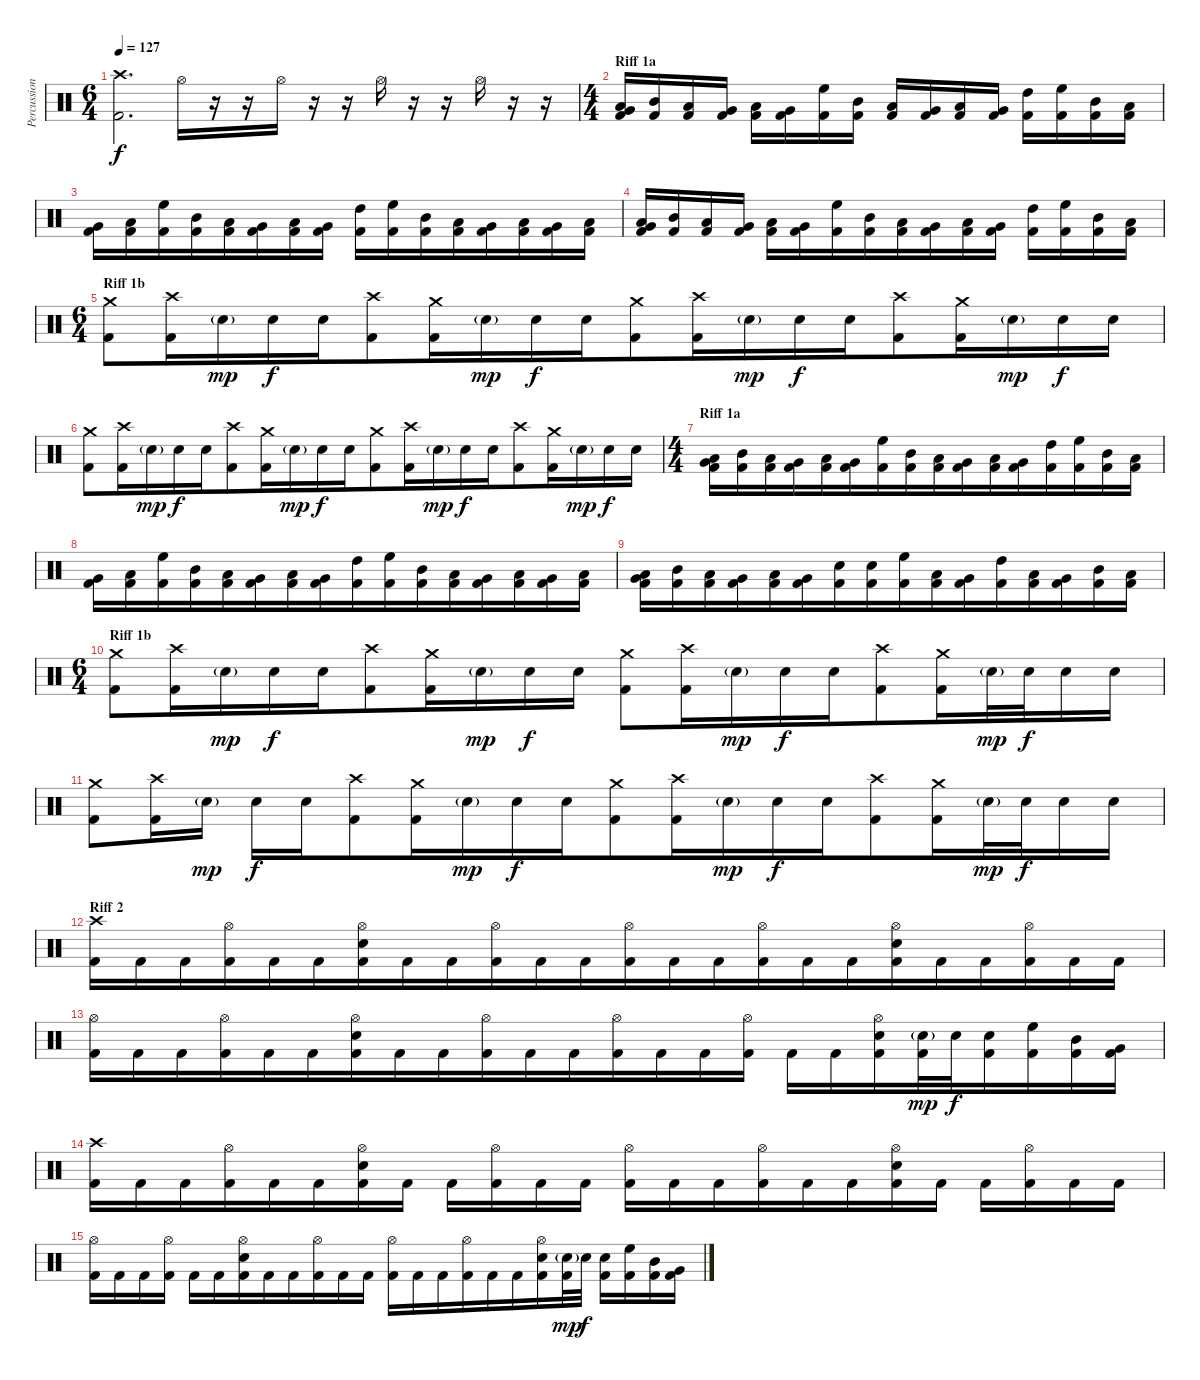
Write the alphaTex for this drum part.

\track ("Percussion" "Percussion") {instrument percussion}
\staff {score}
\articulation defaults
\ts (6 4)
\tempo 127
\clef neutral
\ks c
("Crash high (hit)" "Kick (hit) 2").2{d dy f beam merge} "Hi-Hat (open)".16 r.16 r.16{beam merge} "Hi-Hat (open)".16 r.16 r.16{beam merge} "Hi-Hat (open)".16 r.16 r.16 "Hi-Hat (open)".16 r.16{beam merge} r.16 |
\ts (4 4)
\section ("" "Riff 1a")
("Very Low Tom (hit)" "Low Floor Tom (hit)" "Kick (hit) 2").16 ("Mid Tom (hit)" "Kick (hit) 2").16{beam merge} ("Low Tom (hit)" "Kick (hit) 2").16 ("Very Low Tom (hit)" "Kick (hit) 2").16 ("Low Floor Tom (hit)" "Kick (hit) 2").16{beam merge} ("Very Low Tom (hit)" "Kick (hit) 2").16 ("High Floor Tom (hit)" "Kick (hit) 2").16 ("Mid Tom (hit)" "Kick (hit) 2").16 ("Low Tom (hit)" "Kick (hit) 2").16 ("Very Low Tom (hit)" "Kick (hit) 2").16{beam merge} ("Low Floor Tom (hit)" "Kick (hit) 2").16 ("Very Low Tom (hit)" "Kick (hit) 2").16 ("High Tom (hit)" "Kick (hit) 2").16 ("High Floor Tom (hit)" "Kick (hit) 2").16{beam merge} ("Mid Tom (hit)" "Kick (hit) 2").16 ("Low Tom (hit)" "Kick (hit) 2").16 |
("Very Low Tom (hit)" "Kick (hit) 2").16 ("Low Floor Tom (hit)" "Kick (hit) 2").16 ("High Floor Tom (hit)" "Kick (hit) 2").16{beam merge} ("Mid Tom (hit)" "Kick (hit) 2").16{beam merge} ("Low Tom (hit)" "Kick (hit) 2").16 ("Very Low Tom (hit)" "Kick (hit) 2").16{beam merge} ("Low Floor Tom (hit)" "Kick (hit) 2").16{beam merge} ("Very Low Tom (hit)" "Kick (hit) 2").16 ("High Tom (hit)" "Kick (hit) 2").16 ("High Floor Tom (hit)" "Kick (hit) 2").16{beam merge} ("Mid Tom (hit)" "Kick (hit) 2").16 ("Low Tom (hit)" "Kick (hit) 2").16{beam merge} ("Very Low Tom (hit)" "Kick (hit) 2").16 ("Low Floor Tom (hit)" "Kick (hit) 2").16{beam merge} ("Very Low Tom (hit)" "Kick (hit) 2").16 ("Low Tom (hit)" "Kick (hit) 2").16 |
("Very Low Tom (hit)" "Low Floor Tom (hit)" "Kick (hit) 2").16{beam merge} ("Mid Tom (hit)" "Kick (hit) 2").16 ("Low Tom (hit)" "Kick (hit) 2").16{beam merge} ("Very Low Tom (hit)" "Kick (hit) 2").16 ("Low Floor Tom (hit)" "Kick (hit) 2").16 ("Very Low Tom (hit)" "Kick (hit) 2").16 ("High Floor Tom (hit)" "Kick (hit) 2").16{beam merge} ("Mid Tom (hit)" "Kick (hit) 2").16{beam merge} ("Low Tom (hit)" "Kick (hit) 2").16 ("Very Low Tom (hit)" "Kick (hit) 2").16 ("Low Floor Tom (hit)" "Kick (hit) 2").16{beam merge} ("Very Low Tom (hit)" "Kick (hit) 2").16 ("High Tom (hit)" "Kick (hit) 2").16{beam merge} ("High Floor Tom (hit)" "Kick (hit) 2").16{beam merge} ("Mid Tom (hit)" "Kick (hit) 2").16 ("Low Tom (hit)" "Kick (hit) 2").16 |
\ts (6 4)
\section ("" "Riff 1b")
("Crash medium (hit)" "Kick (hit) 2").8{beam merge} ("Crash high (hit)" "Kick (hit) 2").16{beam merge} "Electric Snare (hit)"{g}.16{dy mp beam merge} "Electric Snare (hit)".16{dy f beam merge} "Electric Snare (hit)".16{beam merge} ("Crash high (hit)" "Kick (hit) 2").8{beam merge} ("Crash medium (hit)" "Kick (hit) 2").16 "Electric Snare (hit)"{g}.16{dy mp beam merge} "Electric Snare (hit)".16{dy f beam merge} "Electric Snare (hit)".16{beam merge} ("Crash medium (hit)" "Kick (hit) 2").8{beam merge} ("Crash high (hit)" "Kick (hit) 2").16{beam merge} "Electric Snare (hit)"{g}.16{dy mp beam merge} "Electric Snare (hit)".16{dy f beam merge} "Electric Snare (hit)".16 ("Crash high (hit)" "Kick (hit) 2").8{beam merge} ("Crash medium (hit)" "Kick (hit) 2").16{beam merge} "Electric Snare (hit)"{g}.16{dy mp beam merge} "Electric Snare (hit)".16{dy f beam merge} "Electric Snare (hit)".16 |
("Crash medium (hit)" "Kick (hit) 2").8{beam merge} ("Crash high (hit)" "Kick (hit) 2").16{beam merge} "Electric Snare (hit)"{g}.16{dy mp beam merge} "Electric Snare (hit)".16{dy f beam merge} "Electric Snare (hit)".16{beam merge} ("Crash high (hit)" "Kick (hit) 2").8{beam merge} ("Crash medium (hit)" "Kick (hit) 2").16{beam merge} "Electric Snare (hit)"{g}.16{dy mp beam merge} "Electric Snare (hit)".16{dy f beam merge} "Electric Snare (hit)".16{beam merge} ("Crash medium (hit)" "Kick (hit) 2").8{beam merge} ("Crash high (hit)" "Kick (hit) 2").16{beam merge} "Electric Snare (hit)"{g}.16{dy mp beam merge} "Electric Snare (hit)".16{dy f beam merge} "Electric Snare (hit)".16 ("Crash high (hit)" "Kick (hit) 2").8{beam merge} ("Crash medium (hit)" "Kick (hit) 2").16{beam merge} "Electric Snare (hit)"{g}.16{dy mp beam merge} "Electric Snare (hit)".16{dy f beam merge} "Electric Snare (hit)".16 |
\ts (4 4)
\section ("" "Riff 1a")
("Very Low Tom (hit)" "Low Floor Tom (hit)" "Kick (hit) 2").16{beam merge} ("Mid Tom (hit)" "Kick (hit) 2").16{beam merge} ("Low Tom (hit)" "Kick (hit) 2").16{beam merge} ("Very Low Tom (hit)" "Kick (hit) 2").16{beam merge} ("Low Floor Tom (hit)" "Kick (hit) 2").16{beam merge} ("Very Low Tom (hit)" "Kick (hit) 2").16{beam merge} ("High Floor Tom (hit)" "Kick (hit) 2").16{beam merge} ("Mid Tom (hit)" "Kick (hit) 2").16{beam merge} ("Low Tom (hit)" "Kick (hit) 2").16{beam merge} ("Very Low Tom (hit)" "Kick (hit) 2").16{beam merge} ("Low Floor Tom (hit)" "Kick (hit) 2").16{beam merge} ("Very Low Tom (hit)" "Kick (hit) 2").16{beam merge} ("High Tom (hit)" "Kick (hit) 2").16{beam merge} ("High Floor Tom (hit)" "Kick (hit) 2").16{beam merge} ("Mid Tom (hit)" "Kick (hit) 2").16{beam merge} ("Low Tom (hit)" "Kick (hit) 2").16 |
("Very Low Tom (hit)" "Kick (hit) 2").16{beam merge} ("Low Floor Tom (hit)" "Kick (hit) 2").16{beam merge} ("High Floor Tom (hit)" "Kick (hit) 2").16{beam merge} ("Mid Tom (hit)" "Kick (hit) 2").16{beam merge} ("Low Tom (hit)" "Kick (hit) 2").16{beam merge} ("Very Low Tom (hit)" "Kick (hit) 2").16{beam merge} ("Low Floor Tom (hit)" "Kick (hit) 2").16{beam merge} ("Very Low Tom (hit)" "Kick (hit) 2").16{beam merge} ("High Tom (hit)" "Kick (hit) 2").16{beam merge} ("High Floor Tom (hit)" "Kick (hit) 2").16{beam merge} ("Mid Tom (hit)" "Kick (hit) 2").16 ("Low Tom (hit)" "Kick (hit) 2").16{beam merge} ("Very Low Tom (hit)" "Kick (hit) 2").16{beam merge} ("Low Floor Tom (hit)" "Kick (hit) 2").16{beam merge} ("Very Low Tom (hit)" "Kick (hit) 2").16{beam merge} ("Low Tom (hit)" "Kick (hit) 2").16 |
("Very Low Tom (hit)" "Low Floor Tom (hit)" "Kick (hit) 2").16{beam merge} ("Mid Tom (hit)" "Kick (hit) 2").16{beam merge} ("Low Tom (hit)" "Kick (hit) 2").16{beam merge} ("Very Low Tom (hit)" "Kick (hit) 2").16{beam merge} ("Low Floor Tom (hit)" "Kick (hit) 2").16{beam merge} ("Very Low Tom (hit)" "Kick (hit) 2").16{beam merge} ("Electric Snare (hit)" "Kick (hit) 2").16{beam merge} ("Electric Snare (hit)" "Kick (hit) 2").16{beam merge} ("High Floor Tom (hit)" "Kick (hit) 2").16{beam merge} ("Low Tom (hit)" "Kick (hit) 2").16{beam merge} ("Very Low Tom (hit)" "Kick (hit) 2").16{beam merge} ("High Tom (hit)" "Kick (hit) 2").16{beam merge} ("Low Tom (hit)" "Kick (hit) 2").16{beam merge} ("Very Low Tom (hit)" "Kick (hit) 2").16{beam merge} ("Mid Tom (hit)" "Kick (hit) 2").16{beam merge} ("Low Floor Tom (hit)" "Kick (hit) 2").16 |
\ts (6 4)
\section ("" "Riff 1b")
("Crash medium (hit)" "Kick (hit) 2").8{beam merge} ("Crash high (hit)" "Kick (hit) 2").16{beam merge} "Electric Snare (hit)"{g}.16{dy mp beam merge} "Electric Snare (hit)".16{dy f beam merge} "Electric Snare (hit)".16{beam merge} ("Crash high (hit)" "Kick (hit) 2").8{beam merge} ("Crash medium (hit)" "Kick (hit) 2").16{beam merge} "Electric Snare (hit)"{g}.16{dy mp beam merge} "Electric Snare (hit)".16{dy f beam merge} "Electric Snare (hit)".16 ("Crash medium (hit)" "Kick (hit) 2").8{beam merge} ("Crash high (hit)" "Kick (hit) 2").16{beam merge} "Electric Snare (hit)"{g}.16{dy mp beam merge} "Electric Snare (hit)".16{dy f beam merge} "Electric Snare (hit)".16{beam merge} ("Crash high (hit)" "Kick (hit) 2").8{beam merge} ("Crash medium (hit)" "Kick (hit) 2").16 "Electric Snare (hit)"{g}.32{dy mp beam merge} "Electric Snare (hit)".32{dy f beam merge} "Electric Snare (hit)".16{beam merge} "Electric Snare (hit)".16 |
("Crash medium (hit)" "Kick (hit) 2").8{beam merge} ("Crash high (hit)" "Kick (hit) 2").16{beam merge} "Electric Snare (hit)"{g}.16{dy mp} "Electric Snare (hit)".16{dy f beam merge} "Electric Snare (hit)".16{beam merge} ("Crash high (hit)" "Kick (hit) 2").8{beam merge} ("Crash medium (hit)" "Kick (hit) 2").16{beam merge} "Electric Snare (hit)"{g}.16{dy mp beam merge} "Electric Snare (hit)".16{dy f beam merge} "Electric Snare (hit)".16{beam merge} ("Crash medium (hit)" "Kick (hit) 2").8{beam merge} ("Crash high (hit)" "Kick (hit) 2").16{beam merge} "Electric Snare (hit)"{g}.16{dy mp beam merge} "Electric Snare (hit)".16{dy f beam merge} "Electric Snare (hit)".16{beam merge} ("Crash high (hit)" "Kick (hit) 2").8{beam merge} ("Crash medium (hit)" "Kick (hit) 2").16{beam merge} "Electric Snare (hit)"{g}.32{dy mp beam merge} "Electric Snare (hit)".32{dy f beam merge} "Electric Snare (hit)".16{beam merge} "Electric Snare (hit)".16 |
\section ("" "Riff 2")
("Crash high (hit)" "Kick (hit) 2").16{beam merge} "Kick (hit) 2".16{beam merge} "Kick (hit) 2".16{beam merge} ("Hi-Hat (open)" "Kick (hit) 2").16{beam merge} "Kick (hit) 2".16 "Kick (hit) 2".16{beam merge} ("Hi-Hat (open)" "Electric Snare (hit)" "Kick (hit) 2").16{beam merge} "Kick (hit) 2".16{beam merge} "Kick (hit) 2".16{beam merge} ("Hi-Hat (open)" "Kick (hit) 2").16{beam merge} "Kick (hit) 2".16{beam merge} "Kick (hit) 2".16{beam merge} ("Hi-Hat (open)" "Kick (hit) 2").16{beam merge} "Kick (hit) 2".16{beam merge} "Kick (hit) 2".16{beam merge} ("Hi-Hat (open)" "Kick (hit) 2").16{beam merge} "Kick (hit) 2".16{beam merge} "Kick (hit) 2".16{beam merge} ("Hi-Hat (open)" "Electric Snare (hit)" "Kick (hit) 2").16{beam merge} "Kick (hit) 2".16{beam merge} "Kick (hit) 2".16 ("Hi-Hat (open)" "Kick (hit) 2").16{beam merge} "Kick (hit) 2".16{beam merge} "Kick (hit) 2".16 |
("Hi-Hat (open)" "Kick (hit) 2").16{beam merge} "Kick (hit) 2".16{beam merge} "Kick (hit) 2".16{beam merge} ("Hi-Hat (open)" "Kick (hit) 2").16{beam merge} "Kick (hit) 2".16{beam merge} "Kick (hit) 2".16{beam merge} ("Hi-Hat (open)" "Electric Snare (hit)" "Kick (hit) 2").16{beam merge} "Kick (hit) 2".16{beam merge} "Kick (hit) 2".16{beam merge} ("Hi-Hat (open)" "Kick (hit) 2").16{beam merge} "Kick (hit) 2".16{beam merge} "Kick (hit) 2".16{beam merge} ("Hi-Hat (open)" "Kick (hit) 2").16{beam merge} "Kick (hit) 2".16{beam merge} "Kick (hit) 2".16{beam merge} ("Hi-Hat (open)" "Kick (hit) 2").16 "Kick (hit) 2".16 "Kick (hit) 2".16 ("Hi-Hat (open)" "Electric Snare (hit)" "Kick (hit) 2").16 ("Electric Snare (hit)"{g} "Kick (hit) 2").32{dy mp} "Electric Snare (hit)".32{dy f beam merge} ("Electric Snare (hit)" "Kick (hit) 2").16{beam merge} ("High Floor Tom (hit)" "Kick (hit) 2").16{beam merge} ("Mid Tom (hit)" "Kick (hit) 2").16 ("Very Low Tom (hit)" "Kick (hit) 2").16 |
("Crash high (hit)" "Kick (hit) 2").16 "Kick (hit) 2".16 "Kick (hit) 2".16 ("Hi-Hat (open)" "Kick (hit) 2").16{beam merge} "Kick (hit) 2".16 "Kick (hit) 2".16 ("Hi-Hat (open)" "Electric Snare (hit)" "Kick (hit) 2").16{beam merge} "Kick (hit) 2".16 "Kick (hit) 2".16 ("Hi-Hat (open)" "Kick (hit) 2").16{beam merge} "Kick (hit) 2".16 "Kick (hit) 2".16 ("Hi-Hat (open)" "Kick (hit) 2").16 "Kick (hit) 2".16 "Kick (hit) 2".16 ("Hi-Hat (open)" "Kick (hit) 2").16{beam merge} "Kick (hit) 2".16 "Kick (hit) 2".16{beam merge} ("Hi-Hat (open)" "Electric Snare (hit)" "Kick (hit) 2").16 "Kick (hit) 2".16 "Kick (hit) 2".16 ("Hi-Hat (open)" "Kick (hit) 2").16 "Kick (hit) 2".16 "Kick (hit) 2".16 |
("Hi-Hat (open)" "Kick (hit) 2").16 "Kick (hit) 2".16 "Kick (hit) 2".16 ("Hi-Hat (open)" "Kick (hit) 2").16 "Kick (hit) 2".16 "Kick (hit) 2".16 ("Hi-Hat (open)" "Electric Snare (hit)" "Kick (hit) 2").16 "Kick (hit) 2".16{beam merge} "Kick (hit) 2".16 ("Hi-Hat (open)" "Kick (hit) 2").16 "Kick (hit) 2".16{beam merge} "Kick (hit) 2".16 ("Hi-Hat (open)" "Kick (hit) 2").16{beam merge} "Kick (hit) 2".16 "Kick (hit) 2".16 ("Hi-Hat (open)" "Kick (hit) 2").16{beam merge} "Kick (hit) 2".16{beam merge} "Kick (hit) 2".16{beam merge} ("Hi-Hat (open)" "Electric Snare (hit)" "Kick (hit) 2").16 ("Electric Snare (hit)"{g} "Kick (hit) 2").32{dy mp} "Electric Snare (hit)".32{dy f} ("Electric Snare (hit)" "Kick (hit) 2").16 ("High Floor Tom (hit)" "Kick (hit) 2").16 ("Mid Tom (hit)" "Kick (hit) 2").16 ("Very Low Tom (hit)" "Kick (hit) 2").16
